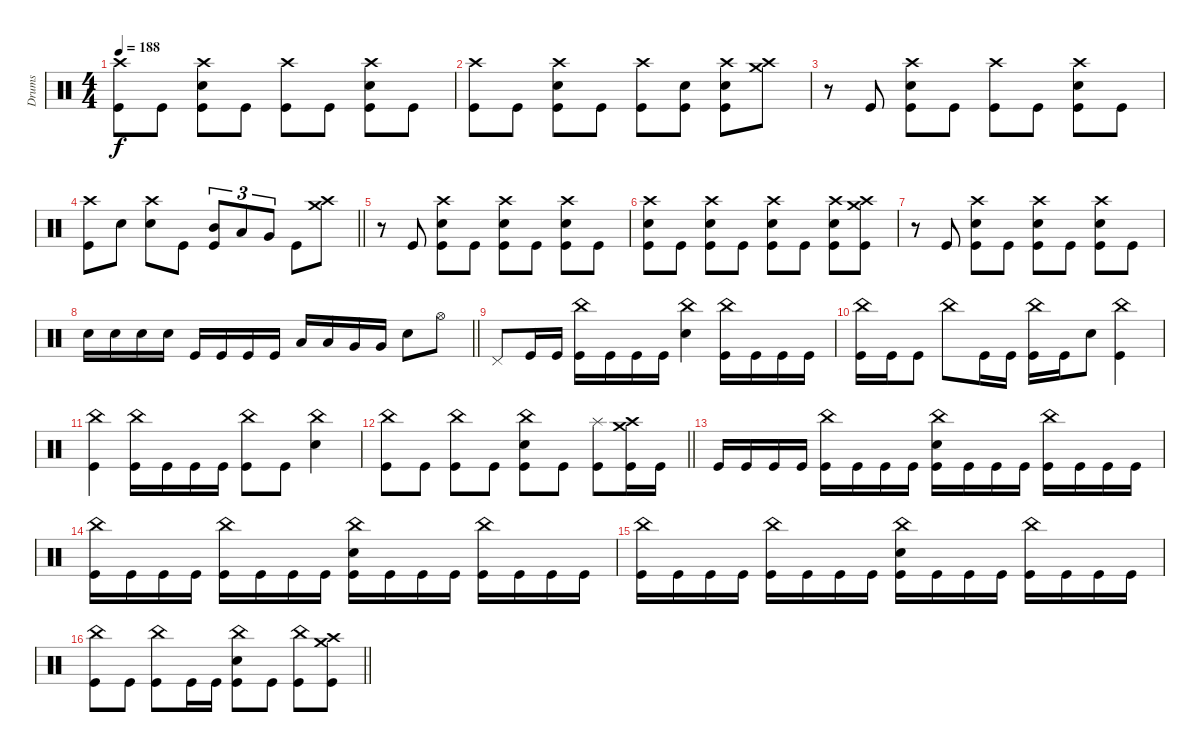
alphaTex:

\track ("Drums" "Drums") {instrument percussion}
\staff
\articulation defaults
\ts (4 4)
\tempo 188
\clef neutral
\ks c
("Crash high (hit)" "Kick (hit)").8{dy f} "Kick (hit)".8 ("Crash high (hit)" "Electric Snare (hit)" "Kick (hit)").8 "Kick (hit)".8 ("Crash high (hit)" "Kick (hit)").8 "Kick (hit)".8 ("Crash high (hit)" "Electric Snare (hit)" "Kick (hit)").8 "Kick (hit)".8 |
("Crash high (hit)" "Kick (hit)").8 "Kick (hit)".8 ("Crash high (hit)" "Electric Snare (hit)" "Kick (hit)").8 "Kick (hit)".8 ("Crash high (hit)" "Kick (hit)").8 ("Electric Snare (hit)" "Kick (hit)").8 ("Crash high (hit)" "Electric Snare (hit)" "Kick (hit)").8 ("Crash high (hit)" "Crash medium (hit)").8 |
r.8 "Kick (hit)".8 ("Crash high (hit)" "Electric Snare (hit)" "Kick (hit)").8 "Kick (hit)".8 ("Crash high (hit)" "Kick (hit)").8 "Kick (hit)".8 ("Crash high (hit)" "Electric Snare (hit)" "Kick (hit)").8 "Kick (hit)".8 |
\barLineRight lightlight
("Crash high (hit)" "Kick (hit)").8 "Electric Snare (hit)".8 ("Crash high (hit)" "Electric Snare (hit)").8 "Kick (hit)".8 ("Mid Tom (hit)" "Kick (hit)").8{tu (3 2)} "Low Tom (hit)".8{tu (3 2)} "Very Low Tom (hit)".8{tu (3 2)} "Kick (hit)".8 ("Crash high (hit)" "Crash medium (hit)").8 |
r.8 "Kick (hit)".8 ("Crash high (hit)" "Electric Snare (hit)" "Kick (hit)").8 "Kick (hit)".8 ("Crash high (hit)" "Electric Snare (hit)" "Kick (hit)").8 "Kick (hit)".8 ("Crash high (hit)" "Electric Snare (hit)" "Kick (hit)").8 "Kick (hit)".8 |
("Crash high (hit)" "Electric Snare (hit)" "Kick (hit)").8 "Kick (hit)".8 ("Crash high (hit)" "Electric Snare (hit)" "Kick (hit)").8 "Kick (hit)".8 ("Crash high (hit)" "Electric Snare (hit)" "Kick (hit)").8 "Kick (hit)".8 ("Crash high (hit)" "Electric Snare (hit)" "Kick (hit)").8 ("Crash high (hit)" "Crash medium (hit)" "Kick (hit)").8 |
r.8 "Kick (hit)".8 ("Crash high (hit)" "Electric Snare (hit)" "Kick (hit)").8 "Kick (hit)".8 ("Crash high (hit)" "Electric Snare (hit)" "Kick (hit)").8 "Kick (hit)".8 ("Crash high (hit)" "Electric Snare (hit)" "Kick (hit)").8 "Kick (hit)".8 |
\barLineRight lightlight "Electric Snare (hit)".16 "Electric Snare (hit)".16 "Electric Snare (hit)".16 "Electric Snare (hit)".16 "Kick (hit)".16 "Kick (hit)".16 "Kick (hit)".16 "Kick (hit)".16 "Low Tom (hit)".16 "Low Tom (hit)".16 "Very Low Tom (hit)".16 "Very Low Tom (hit)".16 "Electric Snare (hit)".8 "Hi-Hat (open)".8
|
\section ("" "")
"Pedal Hi-Hat (hit)".8 "Kick (hit)".16 "Kick (hit)".16 ("China (hit)" "Kick (hit)").16 "Kick (hit)".16 "Kick (hit)".16 "Kick (hit)".16 ("China (hit)" "Electric Snare (hit)").4 ("China (hit)" "Kick (hit)").16 "Kick (hit)".16 "Kick (hit)".16 "Kick (hit)".16 |
("China (hit)" "Kick (hit)").16 "Kick (hit)".16 "Kick (hit)".8 "China (hit)".8 "Kick (hit)".16 "Kick (hit)".16 ("China (hit)" "Kick (hit)").16 "Kick (hit)".16 "Electric Snare (hit)".8 ("China (hit)" "Kick (hit)").4 |
("China (hit)" "Kick (hit)").4 ("China (hit)" "Kick (hit)").16 "Kick (hit)".16 "Kick (hit)".16 "Kick (hit)".16 ("China (hit)" "Kick (hit)").8 "Kick (hit)".8 ("China (hit)" "Electric Snare (hit)").4 |
\barLineRight lightlight
("China (hit)" "Kick (hit)").8 "Kick (hit)".8 ("China (hit)" "Kick (hit)").8 "Kick (hit)".8 ("China (hit)" "Electric Snare (hit)" "Kick (hit)").8 "Kick (hit)".8 ("Splash (hit)" "Kick (hit)").8 ("Crash high (hit)" "Crash medium (hit)" "Kick (hit)").16 "Kick (hit)".16 |
"Kick (hit)".16 "Kick (hit)".16 "Kick (hit)".16 "Kick (hit)".16 ("China (hit)" "Kick (hit)").16 "Kick (hit)".16 "Kick (hit)".16 "Kick (hit)".16 ("China (hit)" "Electric Snare (hit)" "Kick (hit)").16 "Kick (hit)".16 "Kick (hit)".16 "Kick (hit)".16 ("China (hit)" "Kick (hit)").16 "Kick (hit)".16 "Kick (hit)".16 "Kick (hit)".16 |
("China (hit)" "Kick (hit)").16 "Kick (hit)".16 "Kick (hit)".16 "Kick (hit)".16 ("China (hit)" "Kick (hit)").16 "Kick (hit)".16 "Kick (hit)".16 "Kick (hit)".16 ("China (hit)" "Electric Snare (hit)" "Kick (hit)").16 "Kick (hit)".16 "Kick (hit)".16 "Kick (hit)".16 ("China (hit)" "Kick (hit)").16 "Kick (hit)".16 "Kick (hit)".16 "Kick (hit)".16 |
("China (hit)" "Kick (hit)").16 "Kick (hit)".16 "Kick (hit)".16 "Kick (hit)".16 ("China (hit)" "Kick (hit)").16 "Kick (hit)".16 "Kick (hit)".16 "Kick (hit)".16 ("China (hit)" "Electric Snare (hit)" "Kick (hit)").16 "Kick (hit)".16 "Kick (hit)".16 "Kick (hit)".16 ("China (hit)" "Kick (hit)").16 "Kick (hit)".16 "Kick (hit)".16 "Kick (hit)".16 |
\barLineRight lightlight
("China (hit)" "Kick (hit)").8 "Kick (hit)".8 ("China (hit)" "Kick (hit)").8 "Kick (hit)".16 "Kick (hit)".16 ("China (hit)" "Electric Snare (hit)" "Kick (hit)").8 "Kick (hit)".8 ("China (hit)" "Kick (hit)").8 ("Crash high (hit)" "Crash medium (hit)" "Kick (hit)").8
